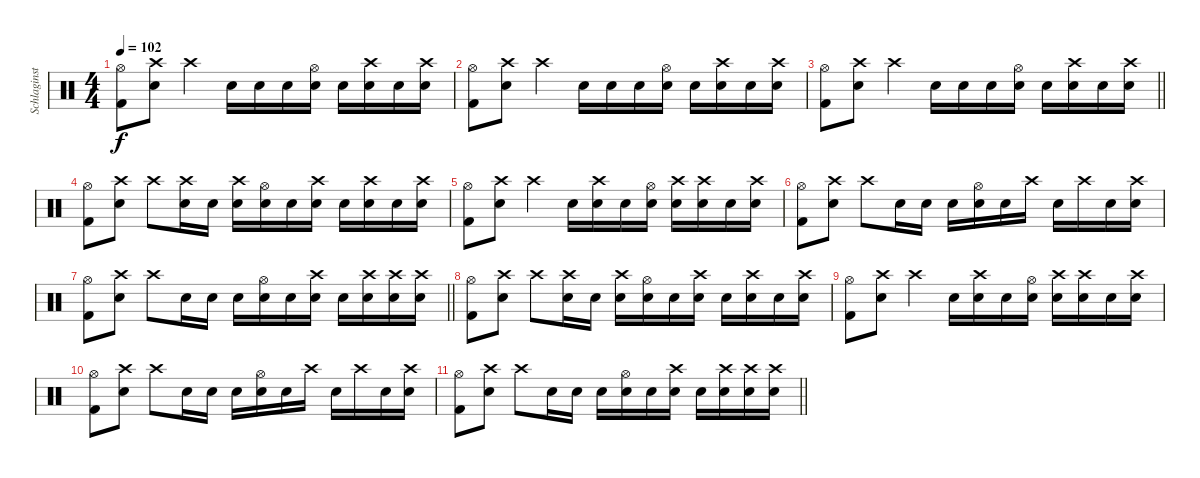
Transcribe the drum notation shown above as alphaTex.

\track ("Schlaginstrumente - Auswahl" "Schlaginst") {instrument percussion}
\staff {score}
\articulation defaults
\ts (4 4)
\tempo 102
\clef neutral
\ks c
("Hi-Hat (open)" "Kick (hit) 2").8{dy f} ("Crash high (hit)" "Electric Snare (hit)").8 "Crash high (hit)".4 "Snare (hit) 2".16 "Snare (hit) 2".16 "Snare (hit) 2".16 ("Snare (hit) 2" "Hi-Hat (open)").16 "Snare (hit) 2".16 ("Snare (hit) 2" "Crash high (hit)").16 "Snare (hit) 2".16 ("Snare (hit) 2" "Crash high (hit)").16 |
("Hi-Hat (open)" "Kick (hit) 2").8 ("Crash high (hit)" "Electric Snare (hit)").8 "Crash high (hit)".4 "Snare (hit) 2".16 "Snare (hit) 2".16 "Snare (hit) 2".16 ("Snare (hit) 2" "Hi-Hat (open)").16 "Snare (hit) 2".16 ("Snare (hit) 2" "Crash high (hit)").16 "Snare (hit) 2".16 ("Snare (hit) 2" "Crash high (hit)").16 |
\barLineRight lightlight
("Hi-Hat (open)" "Kick (hit) 2").8 ("Crash high (hit)" "Electric Snare (hit)").8 "Crash high (hit)".4 "Snare (hit) 2".16 "Snare (hit) 2".16 "Snare (hit) 2".16 ("Snare (hit) 2" "Hi-Hat (open)").16 "Snare (hit) 2".16 ("Snare (hit) 2" "Crash high (hit)").16 "Snare (hit) 2".16 ("Snare (hit) 2" "Crash high (hit)").16 |
("Hi-Hat (open)" "Kick (hit) 2").8 ("Crash high (hit)" "Electric Snare (hit)").8 "Crash high (hit)".8 ("Snare (hit) 2" "Crash high (hit)").16 "Snare (hit) 2".16 ("Snare (hit) 2" "Crash high (hit)").16 ("Snare (hit) 2" "Hi-Hat (open)").16 "Snare (hit) 2".16 ("Snare (hit) 2" "Crash high (hit)").16 "Snare (hit) 2".16 ("Snare (hit) 2" "Crash high (hit)").16 "Snare (hit) 2".16 ("Snare (hit) 2" "Crash high (hit)").16 |
("Hi-Hat (open)" "Kick (hit) 2").8 ("Crash high (hit)" "Electric Snare (hit)").8 "Crash high (hit)".4 "Snare (hit) 2".16 ("Snare (hit) 2" "Crash high (hit)").16 "Snare (hit) 2".16 ("Snare (hit) 2" "Hi-Hat (open)").16 ("Snare (hit) 2" "Crash high (hit)").16 ("Snare (hit) 2" "Crash high (hit)").16 "Snare (hit) 2".16 ("Snare (hit) 2" "Crash high (hit)").16 |
("Hi-Hat (open)" "Kick (hit) 2").8 ("Crash high (hit)" "Electric Snare (hit)").8 "Crash high (hit)".8 "Snare (hit) 2".16 "Snare (hit) 2".16 "Snare (hit) 2".16 ("Snare (hit) 2" "Hi-Hat (open)").16 "Snare (hit) 2".16 "Crash high (hit)".16 "Snare (hit) 2".16 "Crash high (hit)".16 "Snare (hit) 2".16 ("Snare (hit) 2" "Crash high (hit)").16 |
\barLineRight lightlight
("Hi-Hat (open)" "Kick (hit) 2").8 ("Crash high (hit)" "Electric Snare (hit)").8 "Crash high (hit)".8 "Snare (hit) 2".16 "Snare (hit) 2".16 "Snare (hit) 2".16 ("Snare (hit) 2" "Hi-Hat (open)").16 "Snare (hit) 2".16 ("Snare (hit) 2" "Crash high (hit)").16 "Snare (hit) 2".16 ("Snare (hit) 2" "Crash high (hit)").16 ("Snare (hit) 2" "Crash high (hit)").16 ("Snare (hit) 2" "Crash high (hit)").16 |
("Hi-Hat (open)" "Kick (hit) 2").8 ("Crash high (hit)" "Electric Snare (hit)").8 "Crash high (hit)".8 ("Snare (hit) 2" "Crash high (hit)").16 "Snare (hit) 2".16 ("Snare (hit) 2" "Crash high (hit)").16 ("Snare (hit) 2" "Hi-Hat (open)").16 "Snare (hit) 2".16 ("Snare (hit) 2" "Crash high (hit)").16 "Snare (hit) 2".16 ("Snare (hit) 2" "Crash high (hit)").16 "Snare (hit) 2".16 ("Snare (hit) 2" "Crash high (hit)").16 |
("Hi-Hat (open)" "Kick (hit) 2").8 ("Crash high (hit)" "Electric Snare (hit)").8 "Crash high (hit)".4 "Snare (hit) 2".16 ("Snare (hit) 2" "Crash high (hit)").16 "Snare (hit) 2".16 ("Snare (hit) 2" "Hi-Hat (open)").16 ("Snare (hit) 2" "Crash high (hit)").16 ("Snare (hit) 2" "Crash high (hit)").16 "Snare (hit) 2".16 ("Snare (hit) 2" "Crash high (hit)").16 |
("Hi-Hat (open)" "Kick (hit) 2").8 ("Crash high (hit)" "Electric Snare (hit)").8 "Crash high (hit)".8 "Snare (hit) 2".16 "Snare (hit) 2".16 "Snare (hit) 2".16 ("Snare (hit) 2" "Hi-Hat (open)").16 "Snare (hit) 2".16 "Crash high (hit)".16 "Snare (hit) 2".16 "Crash high (hit)".16 "Snare (hit) 2".16 ("Snare (hit) 2" "Crash high (hit)").16 |
\barLineRight lightlight
("Hi-Hat (open)" "Kick (hit) 2").8 ("Crash high (hit)" "Electric Snare (hit)").8 "Crash high (hit)".8 "Snare (hit) 2".16 "Snare (hit) 2".16 "Snare (hit) 2".16 ("Snare (hit) 2" "Hi-Hat (open)").16 "Snare (hit) 2".16 ("Snare (hit) 2" "Crash high (hit)").16 "Snare (hit) 2".16 ("Snare (hit) 2" "Crash high (hit)").16 ("Snare (hit) 2" "Crash high (hit)").16 ("Snare (hit) 2" "Crash high (hit)").16
